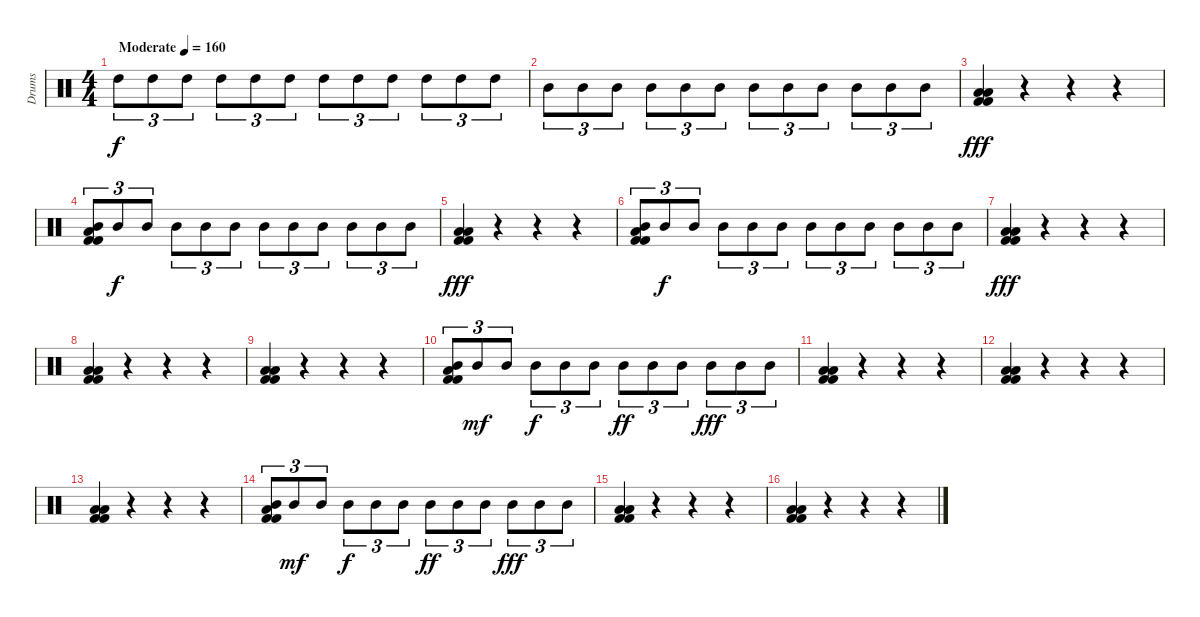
\track ("Drums" "Drums") {instrument percussion}
\staff {score}
\articulation defaults
\ts (4 4)
\tempo (160 "Moderate")
\clef neutral
\ks c "High Tom (hit)".8{tu (3 2) dy f} "High Tom (hit)".8{tu (3 2)} "High Tom (hit)".8{tu (3 2)} "High Tom (hit)".8{tu (3 2)} "High Tom (hit)".8{tu (3 2)} "High Tom (hit)".8{tu (3 2)} "High Tom (hit)".8{tu (3 2)} "High Tom (hit)".8{tu (3 2)} "High Tom (hit)".8{tu (3 2)} "High Tom (hit)".8{tu (3 2)} "High Tom (hit)".8{tu (3 2)} "High Tom (hit)".8{tu (3 2)}
|
"Mid Tom (hit)".8{tu (3 2)} "Mid Tom (hit)".8{tu (3 2)} "Mid Tom (hit)".8{tu (3 2)} "Mid Tom (hit)".8{tu (3 2)} "Mid Tom (hit)".8{tu (3 2)} "Mid Tom (hit)".8{tu (3 2)} "Mid Tom (hit)".8{tu (3 2)} "Mid Tom (hit)".8{tu (3 2)} "Mid Tom (hit)".8{tu (3 2)} "Mid Tom (hit)".8{tu (3 2)} "Mid Tom (hit)".8{tu (3 2)} "Mid Tom (hit)".8{tu (3 2)} |
("Low Tom (hit)" "Kick (hit) 2" "Kick (hit) 2" "Low Tom (hit)").4{dy fff} r.4 r.4 r.4 |
("Mid Tom (hit)" "Low Tom (hit)" "Kick (hit) 2" "Kick (hit) 2").8{tu (3 2)} "Mid Tom (hit)".8{tu (3 2) dy f} "Mid Tom (hit)".8{tu (3 2)} "Mid Tom (hit)".8{tu (3 2)} "Mid Tom (hit)".8{tu (3 2)} "Mid Tom (hit)".8{tu (3 2)} "Mid Tom (hit)".8{tu (3 2)} "Mid Tom (hit)".8{tu (3 2)} "Mid Tom (hit)".8{tu (3 2)} "Mid Tom (hit)".8{tu (3 2)} "Mid Tom (hit)".8{tu (3 2)} "Mid Tom (hit)".8{tu (3 2)} |
("Low Tom (hit)" "Kick (hit) 2" "Kick (hit) 2" "Low Tom (hit)").4{dy fff} r.4 r.4 r.4 |
("Mid Tom (hit)" "Low Tom (hit)" "Kick (hit) 2" "Kick (hit) 2").8{tu (3 2)} "Mid Tom (hit)".8{tu (3 2) dy f} "Mid Tom (hit)".8{tu (3 2)} "Mid Tom (hit)".8{tu (3 2)} "Mid Tom (hit)".8{tu (3 2)} "Mid Tom (hit)".8{tu (3 2)} "Mid Tom (hit)".8{tu (3 2)} "Mid Tom (hit)".8{tu (3 2)} "Mid Tom (hit)".8{tu (3 2)} "Mid Tom (hit)".8{tu (3 2)} "Mid Tom (hit)".8{tu (3 2)} "Mid Tom (hit)".8{tu (3 2)} |
("Low Tom (hit)" "Kick (hit) 2" "Kick (hit) 2" "Low Tom (hit)").4{dy fff} r.4 r.4 r.4 |
("Low Tom (hit)" "Kick (hit) 2" "Kick (hit) 2" "Low Tom (hit)").4 r.4 r.4 r.4 |
("Low Tom (hit)" "Kick (hit) 2" "Kick (hit) 2" "Low Tom (hit)").4 r.4 r.4 r.4 |
("Mid Tom (hit)" "Low Tom (hit)" "Kick (hit) 2" "Kick (hit) 2").8{tu (3 2)} "Mid Tom (hit)".8{tu (3 2) dy mf} "Mid Tom (hit)".8{tu (3 2)} "Mid Tom (hit)".8{tu (3 2) dy f} "Mid Tom (hit)".8{tu (3 2)} "Mid Tom (hit)".8{tu (3 2)} "Mid Tom (hit)".8{tu (3 2) dy ff} "Mid Tom (hit)".8{tu (3 2)} "Mid Tom (hit)".8{tu (3 2)} "Mid Tom (hit)".8{tu (3 2) dy fff} "Mid Tom (hit)".8{tu (3 2)} "Mid Tom (hit)".8{tu (3 2)} |
("Low Tom (hit)" "Kick (hit) 2" "Kick (hit) 2" "Low Tom (hit)").4 r.4 r.4 r.4 |
("Low Tom (hit)" "Kick (hit) 2" "Kick (hit) 2" "Low Tom (hit)").4 r.4 r.4 r.4 |
("Low Tom (hit)" "Kick (hit) 2" "Kick (hit) 2" "Low Tom (hit)").4 r.4 r.4 r.4 |
("Mid Tom (hit)" "Low Tom (hit)" "Kick (hit) 2" "Kick (hit) 2").8{tu (3 2)} "Mid Tom (hit)".8{tu (3 2) dy mf} "Mid Tom (hit)".8{tu (3 2)} "Mid Tom (hit)".8{tu (3 2) dy f} "Mid Tom (hit)".8{tu (3 2)} "Mid Tom (hit)".8{tu (3 2)} "Mid Tom (hit)".8{tu (3 2) dy ff} "Mid Tom (hit)".8{tu (3 2)} "Mid Tom (hit)".8{tu (3 2)} "Mid Tom (hit)".8{tu (3 2) dy fff} "Mid Tom (hit)".8{tu (3 2)} "Mid Tom (hit)".8{tu (3 2)} |
("Low Tom (hit)" "Kick (hit) 2" "Kick (hit) 2" "Low Tom (hit)").4 r.4 r.4 r.4 |
("Low Tom (hit)" "Kick (hit) 2" "Kick (hit) 2" "Low Tom (hit)").4 r.4 r.4 r.4
